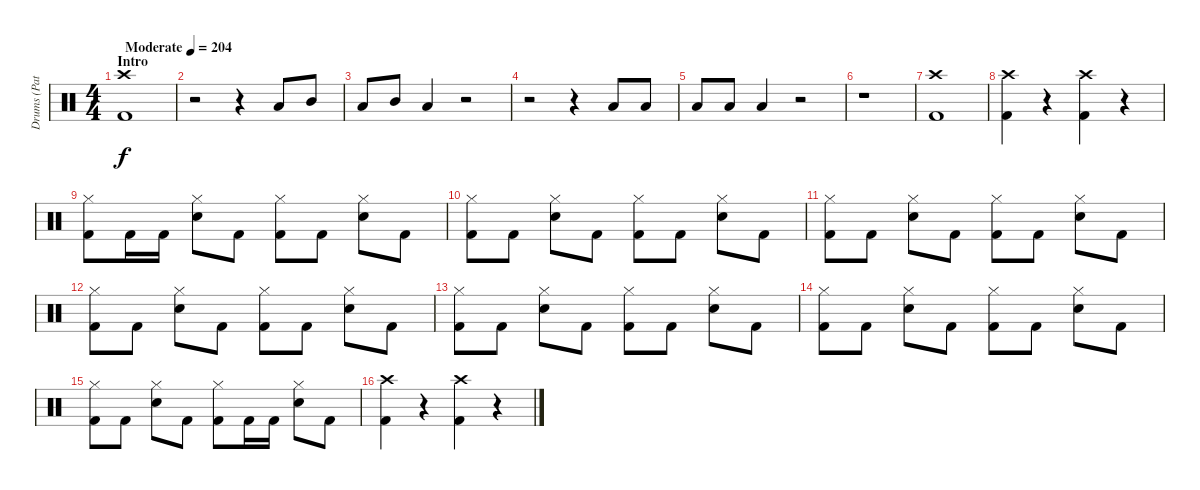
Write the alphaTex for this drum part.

\track ("Drums (Patrick Johansson)" "Drums (Pat") {instrument percussion}
\staff {score}
\articulation defaults
\ts (4 4)
\section ("" "Intro")
\tempo (204 "Moderate")
\clef neutral
\ks c
("Crash high (hit)" "Kick (hit) 2").1{dy f} |
r.2 r.4 "Low Tom (hit)".8 "Mid Tom (hit)".8 |
"Low Tom (hit)".8 "Mid Tom (hit)".8 "Low Tom (hit)".4 r.2 |
r.2 r.4 "Low Tom (hit)".8 "Low Tom (hit)".8 |
"Low Tom (hit)".8 "Low Tom (hit)".8 "Low Tom (hit)".4 r.2 |
r.1 |
("Crash high (hit)" "Kick (hit) 2").1 |
("Crash high (hit)" "Kick (hit) 2").4 r.4 ("Crash high (hit)" "Kick (hit) 2").4 r.4 |
("Hi-Hat (closed)" "Kick (hit) 2").8 "Kick (hit) 2".16 "Kick (hit) 2".16 ("Electric Snare (hit)" "Hi-Hat (closed)").8 "Kick (hit) 2".8 ("Hi-Hat (closed)" "Kick (hit) 2").8 "Kick (hit) 2".8 ("Electric Snare (hit)" "Hi-Hat (closed)").8 "Kick (hit) 2".8 |
("Hi-Hat (closed)" "Kick (hit) 2").8 "Kick (hit) 2".8 ("Electric Snare (hit)" "Hi-Hat (closed)").8 "Kick (hit) 2".8 ("Hi-Hat (closed)" "Kick (hit) 2").8 "Kick (hit) 2".8 ("Electric Snare (hit)" "Hi-Hat (closed)").8 "Kick (hit) 2".8 |
("Hi-Hat (closed)" "Kick (hit) 2").8 "Kick (hit) 2".8 ("Electric Snare (hit)" "Hi-Hat (closed)").8 "Kick (hit) 2".8 ("Hi-Hat (closed)" "Kick (hit) 2").8 "Kick (hit) 2".8 ("Electric Snare (hit)" "Hi-Hat (closed)").8 "Kick (hit) 2".8 |
("Hi-Hat (closed)" "Kick (hit) 2").8 "Kick (hit) 2".8 ("Electric Snare (hit)" "Hi-Hat (closed)").8 "Kick (hit) 2".8 ("Hi-Hat (closed)" "Kick (hit) 2").8 "Kick (hit) 2".8 ("Electric Snare (hit)" "Hi-Hat (closed)").8 "Kick (hit) 2".8 |
("Hi-Hat (closed)" "Kick (hit) 2").8 "Kick (hit) 2".8 ("Electric Snare (hit)" "Hi-Hat (closed)").8 "Kick (hit) 2".8 ("Hi-Hat (closed)" "Kick (hit) 2").8 "Kick (hit) 2".8 ("Electric Snare (hit)" "Hi-Hat (closed)").8 "Kick (hit) 2".8 |
("Hi-Hat (closed)" "Kick (hit) 2").8 "Kick (hit) 2".8 ("Electric Snare (hit)" "Hi-Hat (closed)").8 "Kick (hit) 2".8 ("Hi-Hat (closed)" "Kick (hit) 2").8 "Kick (hit) 2".8 ("Electric Snare (hit)" "Hi-Hat (closed)").8 "Kick (hit) 2".8 |
("Hi-Hat (closed)" "Kick (hit) 2").8 "Kick (hit) 2".8 ("Electric Snare (hit)" "Hi-Hat (closed)").8 "Kick (hit) 2".8 ("Hi-Hat (closed)" "Kick (hit) 2").8 "Kick (hit) 2".16 "Kick (hit) 2".16 ("Electric Snare (hit)" "Hi-Hat (closed)").8 "Kick (hit) 2".8 |
("Crash high (hit)" "Kick (hit) 2").4 r.4 ("Crash high (hit)" "Kick (hit) 2").4 r.4
